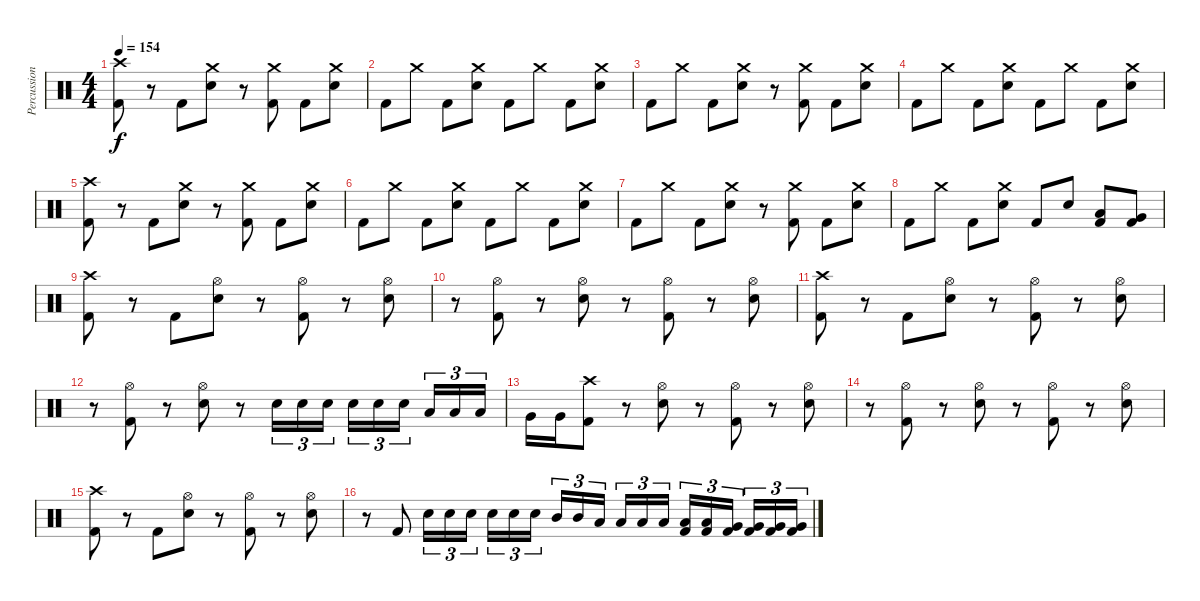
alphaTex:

\track ("Percussion" "Percussion") {instrument percussion}
\staff {score}
\articulation defaults
\ts (4 4)
\tempo 154
\clef neutral
\ks c
("Crash high (hit)" "Kick (hit) 2").8{dy f} r.8 "Kick (hit) 2".8 ("Crash medium (hit)" "Electric Snare (hit)").8 r.8 ("Crash medium (hit)" "Kick (hit) 2").8 "Kick (hit) 2".8 ("Crash medium (hit)" "Electric Snare (hit)").8 |
"Kick (hit) 2".8 "Crash medium (hit)".8 "Kick (hit) 2".8 ("Crash medium (hit)" "Electric Snare (hit)").8 "Kick (hit) 2".8 "Crash medium (hit)".8 "Kick (hit) 2".8 ("Crash medium (hit)" "Electric Snare (hit)").8 |
"Kick (hit) 2".8 "Crash medium (hit)".8 "Kick (hit) 2".8 ("Crash medium (hit)" "Electric Snare (hit)").8 r.8 ("Crash medium (hit)" "Kick (hit) 2").8 "Kick (hit) 2".8 ("Crash medium (hit)" "Electric Snare (hit)").8 |
"Kick (hit) 2".8 "Crash medium (hit)".8 "Kick (hit) 2".8 ("Crash medium (hit)" "Electric Snare (hit)").8 "Kick (hit) 2".8 "Crash medium (hit)".8 "Kick (hit) 2".8 ("Crash medium (hit)" "Electric Snare (hit)").8 |
("Crash high (hit)" "Kick (hit) 2").8 r.8 "Kick (hit) 2".8 ("Crash medium (hit)" "Electric Snare (hit)").8 r.8 ("Crash medium (hit)" "Kick (hit) 2").8 "Kick (hit) 2".8 ("Crash medium (hit)" "Electric Snare (hit)").8 |
"Kick (hit) 2".8 "Crash medium (hit)".8 "Kick (hit) 2".8 ("Crash medium (hit)" "Electric Snare (hit)").8 "Kick (hit) 2".8 "Crash medium (hit)".8 "Kick (hit) 2".8 ("Crash medium (hit)" "Electric Snare (hit)").8 |
"Kick (hit) 2".8 "Crash medium (hit)".8 "Kick (hit) 2".8 ("Crash medium (hit)" "Electric Snare (hit)").8 r.8 ("Crash medium (hit)" "Kick (hit) 2").8 "Kick (hit) 2".8 ("Crash medium (hit)" "Electric Snare (hit)").8 |
"Kick (hit) 2".8 "Crash medium (hit)".8 "Kick (hit) 2".8 ("Crash medium (hit)" "Electric Snare (hit)").8 "Kick (hit) 2".8 "Electric Snare (hit)".8 ("Low Tom (hit)" "Kick (hit) 2").8 ("Very Low Tom (hit)" "Kick (hit) 2").8 |
("Crash high (hit)" "Kick (hit) 2").8 r.8 "Kick (hit) 2".8 ("Hi-Hat (open)" "Electric Snare (hit)").8 r.8 ("Hi-Hat (open)" "Kick (hit) 2").8 r.8 ("Hi-Hat (open)" "Electric Snare (hit)").8 |
r.8 ("Hi-Hat (open)" "Kick (hit) 2").8 r.8 ("Hi-Hat (open)" "Electric Snare (hit)").8 r.8 ("Hi-Hat (open)" "Kick (hit) 2").8 r.8 ("Hi-Hat (open)" "Electric Snare (hit)").8 |
("Crash high (hit)" "Kick (hit) 2").8 r.8 "Kick (hit) 2".8 ("Hi-Hat (open)" "Electric Snare (hit)").8 r.8 ("Hi-Hat (open)" "Kick (hit) 2").8 r.8 ("Hi-Hat (open)" "Electric Snare (hit)").8 |
r.8 ("Hi-Hat (open)" "Kick (hit) 2").8 r.8 ("Hi-Hat (open)" "Electric Snare (hit)").8 r.8 "Electric Snare (hit)".16{tu (3 2)} "Electric Snare (hit)".16{tu (3 2)} "Electric Snare (hit)".16{tu (3 2)} "Electric Snare (hit)".16{tu (3 2)} "Electric Snare (hit)".16{tu (3 2)} "Electric Snare (hit)".16{tu (3 2) beam splitsecondary} "Low Tom (hit)".16{tu (3 2)} "Low Tom (hit)".16{tu (3 2)} "Low Tom (hit)".16{tu (3 2)} |
"Very Low Tom (hit)".16 "Very Low Tom (hit)".16 ("Crash high (hit)" "Kick (hit) 2").8 r.8 ("Hi-Hat (open)" "Electric Snare (hit)").8 r.8 ("Hi-Hat (open)" "Kick (hit) 2").8 r.8 ("Hi-Hat (open)" "Electric Snare (hit)").8 |
r.8 ("Hi-Hat (open)" "Kick (hit) 2").8 r.8 ("Hi-Hat (open)" "Electric Snare (hit)").8 r.8 ("Hi-Hat (open)" "Kick (hit) 2").8 r.8 ("Hi-Hat (open)" "Electric Snare (hit)").8 |
("Crash high (hit)" "Kick (hit) 2").8 r.8 "Kick (hit) 2".8 ("Hi-Hat (open)" "Electric Snare (hit)").8 r.8 ("Hi-Hat (open)" "Kick (hit) 2").8 r.8 ("Hi-Hat (open)" "Electric Snare (hit)").8 |
r.8 "Kick (hit) 2".8 "Electric Snare (hit)".16{tu (3 2)} "Electric Snare (hit)".16{tu (3 2)} "Electric Snare (hit)".16{tu (3 2) beam splitsecondary} "Electric Snare (hit)".16{tu (3 2)} "Electric Snare (hit)".16{tu (3 2)} "Electric Snare (hit)".16{tu (3 2)} "Mid Tom (hit)".16{tu (3 2)} "Mid Tom (hit)".16{tu (3 2)} "Low Tom (hit)".16{tu (3 2) beam splitsecondary} "Low Tom (hit)".16{tu (3 2)} "Low Tom (hit)".16{tu (3 2)} "Low Tom (hit)".16{tu (3 2)} ("Low Tom (hit)" "Kick (hit) 2").16{tu (3 2)} ("Low Tom (hit)" "Kick (hit) 2").16{tu (3 2)} ("Very Low Tom (hit)" "Kick (hit) 2").16{tu (3 2) beam splitsecondary} ("Very Low Tom (hit)" "Kick (hit) 2").16{tu (3 2)} ("Very Low Tom (hit)" "Kick (hit) 2").16{tu (3 2)} ("Very Low Tom (hit)" "Kick (hit) 2").16{tu (3 2)}
